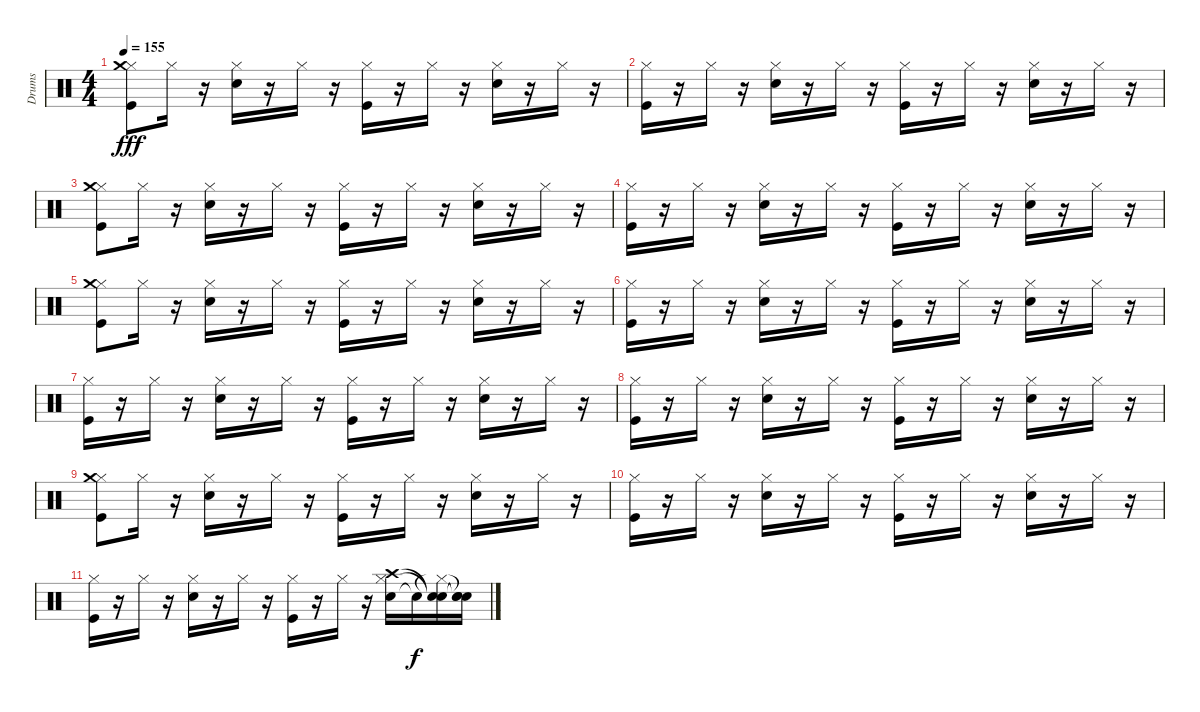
\track ("Drums" "Drums") {instrument percussion}
\staff {score}
\articulation defaults
\ts (4 4)
\tempo 155
\clef neutral
\ks c
("Kick (hit)" "Hi-Hat (closed)" "Crash medium (hit)").8{dy fff} "Hi-Hat (closed)".16 r.16 ("Snare (hit) 2" "Hi-Hat (closed)").16 r.16 "Hi-Hat (closed)".16 r.16 ("Kick (hit)" "Hi-Hat (closed)").16 r.16 "Hi-Hat (closed)".16 r.16 ("Snare (hit) 2" "Hi-Hat (closed)").16 r.16 "Hi-Hat (closed)".16 r.16 |
("Hi-Hat (closed)" "Kick (hit)").16 r.16 "Hi-Hat (closed)".16 r.16 ("Hi-Hat (closed)" "Snare (hit) 2").16 r.16 "Hi-Hat (closed)".16 r.16 ("Hi-Hat (closed)" "Kick (hit)").16 r.16 "Hi-Hat (closed)".16 r.16 ("Hi-Hat (closed)" "Snare (hit) 2").16 r.16 "Hi-Hat (closed)".16 r.16 |
("Kick (hit)" "Hi-Hat (closed)" "Crash medium (hit)").8 "Hi-Hat (closed)".16 r.16 ("Snare (hit) 2" "Hi-Hat (closed)").16 r.16 "Hi-Hat (closed)".16 r.16 ("Kick (hit)" "Hi-Hat (closed)").16 r.16 "Hi-Hat (closed)".16 r.16 ("Snare (hit) 2" "Hi-Hat (closed)").16 r.16 "Hi-Hat (closed)".16 r.16 |
("Hi-Hat (closed)" "Kick (hit)").16 r.16 "Hi-Hat (closed)".16 r.16 ("Hi-Hat (closed)" "Snare (hit) 2").16 r.16 "Hi-Hat (closed)".16 r.16 ("Hi-Hat (closed)" "Kick (hit)").16 r.16 "Hi-Hat (closed)".16 r.16 ("Hi-Hat (closed)" "Snare (hit) 2").16 r.16 "Hi-Hat (closed)".16 r.16 |
("Kick (hit)" "Hi-Hat (closed)" "Crash medium (hit)").8 "Hi-Hat (closed)".16 r.16 ("Snare (hit) 2" "Hi-Hat (closed)").16 r.16 "Hi-Hat (closed)".16 r.16 ("Kick (hit)" "Hi-Hat (closed)").16 r.16 "Hi-Hat (closed)".16 r.16 ("Snare (hit) 2" "Hi-Hat (closed)").16 r.16 "Hi-Hat (closed)".16 r.16 |
("Hi-Hat (closed)" "Kick (hit)").16 r.16 "Hi-Hat (closed)".16 r.16 ("Hi-Hat (closed)" "Snare (hit) 2").16 r.16 "Hi-Hat (closed)".16 r.16 ("Hi-Hat (closed)" "Kick (hit)").16 r.16 "Hi-Hat (closed)".16 r.16 ("Hi-Hat (closed)" "Snare (hit) 2").16 r.16 "Hi-Hat (closed)".16 r.16 |
("Kick (hit)" "Hi-Hat (closed)").16 r.16 "Hi-Hat (closed)".16 r.16 ("Snare (hit) 2" "Hi-Hat (closed)").16 r.16 "Hi-Hat (closed)".16 r.16 ("Kick (hit)" "Hi-Hat (closed)").16 r.16 "Hi-Hat (closed)".16 r.16 ("Snare (hit) 2" "Hi-Hat (closed)").16 r.16 "Hi-Hat (closed)".16 r.16 |
("Hi-Hat (closed)" "Kick (hit)").16 r.16 "Hi-Hat (closed)".16 r.16 ("Hi-Hat (closed)" "Snare (hit) 2").16 r.16 "Hi-Hat (closed)".16 r.16 ("Hi-Hat (closed)" "Kick (hit)").16 r.16 "Hi-Hat (closed)".16 r.16 ("Hi-Hat (closed)" "Snare (hit) 2").16 r.16 "Hi-Hat (closed)".16 r.16 |
("Kick (hit)" "Hi-Hat (closed)" "Crash medium (hit)").8 "Hi-Hat (closed)".16 r.16 ("Snare (hit) 2" "Hi-Hat (closed)").16 r.16 "Hi-Hat (closed)".16 r.16 ("Kick (hit)" "Hi-Hat (closed)").16 r.16 "Hi-Hat (closed)".16 r.16 ("Snare (hit) 2" "Hi-Hat (closed)").16 r.16 "Hi-Hat (closed)".16 r.16 |
("Hi-Hat (closed)" "Kick (hit)").16 r.16 "Hi-Hat (closed)".16 r.16 ("Hi-Hat (closed)" "Snare (hit) 2").16 r.16 "Hi-Hat (closed)".16 r.16 ("Hi-Hat (closed)" "Kick (hit)").16 r.16 "Hi-Hat (closed)".16 r.16 ("Hi-Hat (closed)" "Snare (hit) 2").16 r.16 "Hi-Hat (closed)".16 r.16 |
("Kick (hit)" "Hi-Hat (closed)").16 r.16 "Hi-Hat (closed)".16 r.16 ("Snare (hit) 2" "Hi-Hat (closed)").16 r.16 "Hi-Hat (closed)".16 r.16 ("Kick (hit)" "Hi-Hat (closed)").16 r.16 "Hi-Hat (closed)".16 r.16 ("Snare (hit) 2" "Hi-Hat (closed)" "Crash high (hit)").16 "Snare (hit)"{t}.16{dy f} ("Hi-Hat (closed)"{t} "Snare (hit)"{t} "Snare (hit)"{t}).16 ("Snare (hit)"{t} "Snare (hit)"{t} "Snare (hit)"{t}).16
